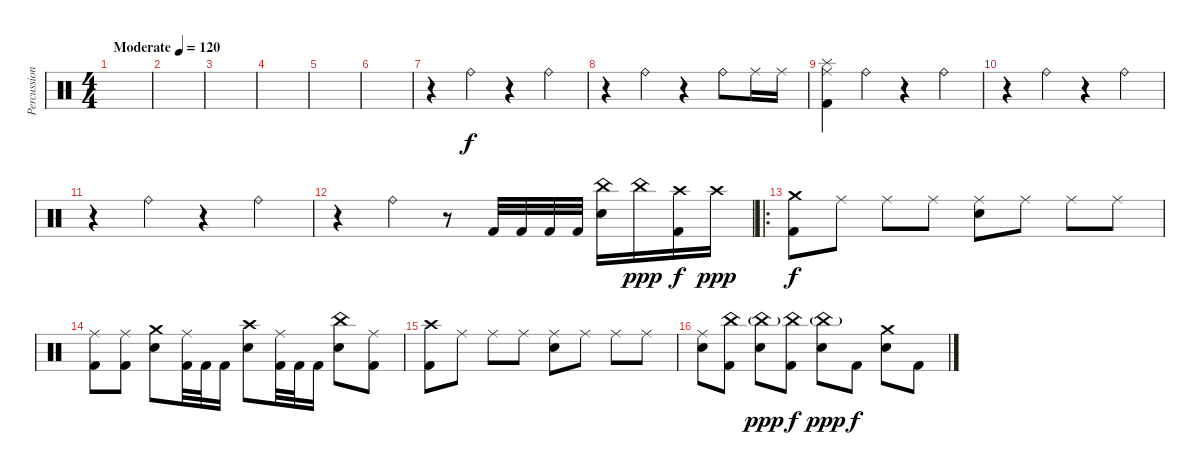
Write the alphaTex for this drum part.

\track ("Percussion" "Percussion") {instrument percussion}
\staff {score}
\articulation defaults
\ts (4 4)
\tempo (120 "Moderate")
\clef neutral
\ks c
|
|
|
|
|
|
r.4 "Ride (bell)".4 r.4 "Ride (bell)".4 |
r.4 "Ride (bell)".4 r.4 "Ride (bell)".8 "Ride (middle)".16 "Ride (middle)".16 |
("Splash (hit)" "Ride (middle)" "Kick (hit) 2").4 "Ride (bell)".4 r.4 "Ride (bell)".4 |
r.4 "Ride (bell)".4 r.4 "Ride (bell)".4 |
r.4 "Ride (bell)".4 r.4 "Ride (bell)".4 |
r.4 "Ride (bell)".4 r.8 "Kick (hit) 2".32 "Kick (hit) 2".32 "Kick (hit) 2".32 "Kick (hit) 2".32 ("China (hit)" "Electric Snare (hit)").16 "China (hit)".16{dy ppp} ("Crash high (hit)" "Kick (hit) 2").16{dy f} "Crash high (hit)".16{dy ppp} |
\ro
("Crash medium (hit)" "Kick (hit) 2").8{dy f} "Ride (middle)".8 "Ride (middle)".8 "Ride (middle)".8 ("Ride (middle)" "Electric Snare (hit)").8 "Ride (middle)".8 "Ride (middle)".8 "Ride (middle)".8 |
("Ride (middle)" "Kick (hit) 2").8 ("Ride (middle)" "Kick (hit) 2").8 ("Crash medium (hit)" "Electric Snare (hit)").8 ("Ride (middle)" "Kick (hit) 2").32 "Kick (hit) 2".32 "Kick (hit) 2".16 ("Crash high (hit)" "Electric Snare (hit)").8 ("Ride (middle)" "Kick (hit) 2").32 "Kick (hit) 2".32 "Kick (hit) 2".16 ("China (hit)" "Electric Snare (hit)").8 ("Ride (middle)" "Kick (hit) 2").8 |
("Crash high (hit)" "Kick (hit) 2").8 "Ride (middle)".8 "Ride (middle)".8 "Ride (middle)".8 ("Ride (middle)" "Electric Snare (hit)").8 "Ride (middle)".8 "Ride (middle)".8 "Ride (middle)".8 |
("Ride (middle)" "Electric Snare (hit)").8 ("China (hit)" "Kick (hit) 2").8 ("China (hit)"{g} "Electric Snare (hit)").8{dy ppp} ("China (hit)" "Kick (hit) 2").8{dy f} ("China (hit)"{g} "Electric Snare (hit)").8{dy ppp} "Kick (hit) 2".8{dy f} ("Crash medium (hit)" "Electric Snare (hit)").8 "Kick (hit) 2".8
